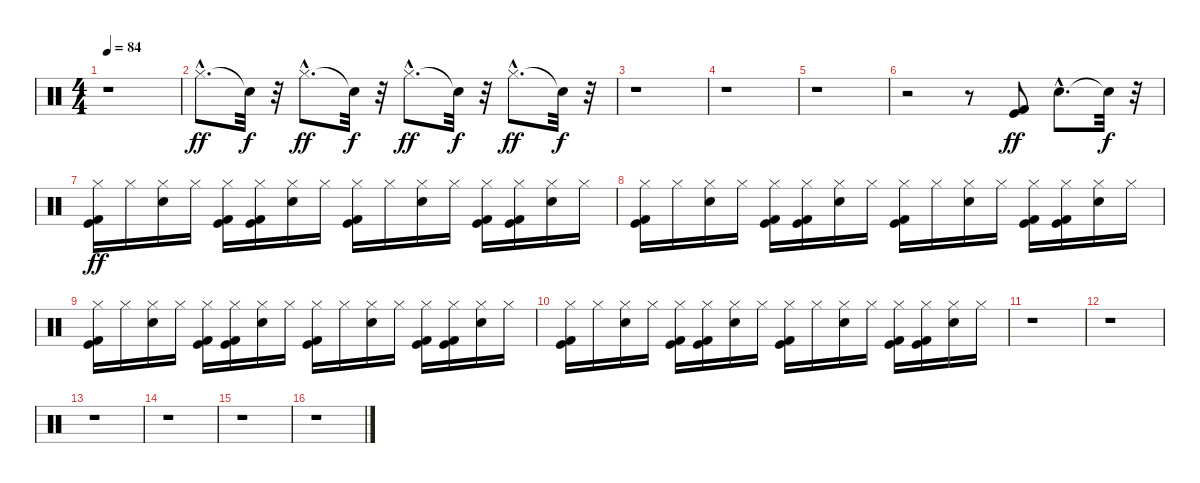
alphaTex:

\track "" {instrument percussion}
\staff {score}
\articulation defaults
\ts (4 4)
\tempo 84
\clef neutral
\ks c
r.1{dy ff} |
"Hi-Hat (closed)"{hac}.8{d} "Snare (hit)"{t}.32{dy f} r.32 "Hi-Hat (closed)"{hac}.8{d dy ff} "Snare (hit)"{t}.32{dy f} r.32 "Hi-Hat (closed)"{hac}.8{d dy ff} "Snare (hit)"{t}.32{dy f} r.32 "Hi-Hat (closed)"{hac}.8{d dy ff} "Snare (hit)"{t}.32{dy f} r.32 |
r.1 |
r.1 |
r.1 |
r.2 r.8 ("Kick (hit)" "Kick (hit) 2").8{dy ff} "Snare (hit) 2"{hac}.8{d} "Snare (hit)"{t}.32{dy f} r.32 |
("Kick (hit)" "Kick (hit) 2" "Hi-Hat (closed)").16{dy ff} "Hi-Hat (closed)".16 ("Snare (hit) 2" "Hi-Hat (closed)").16 "Hi-Hat (closed)".16 ("Kick (hit)" "Kick (hit) 2" "Hi-Hat (closed)").16 ("Kick (hit)" "Kick (hit) 2" "Hi-Hat (closed)").16 ("Snare (hit) 2" "Hi-Hat (closed)").16 "Hi-Hat (closed)".16 ("Kick (hit)" "Kick (hit) 2" "Hi-Hat (closed)").16 "Hi-Hat (closed)".16 ("Snare (hit) 2" "Hi-Hat (closed)").16 "Hi-Hat (closed)".16 ("Kick (hit)" "Kick (hit) 2" "Hi-Hat (closed)").16 ("Kick (hit)" "Kick (hit) 2" "Hi-Hat (closed)").16 ("Snare (hit) 2" "Hi-Hat (closed)").16 "Hi-Hat (closed)".16 |
("Kick (hit)" "Kick (hit) 2" "Hi-Hat (closed)").16 "Hi-Hat (closed)".16 ("Snare (hit) 2" "Hi-Hat (closed)").16 "Hi-Hat (closed)".16 ("Kick (hit)" "Kick (hit) 2" "Hi-Hat (closed)").16 ("Kick (hit)" "Kick (hit) 2" "Hi-Hat (closed)").16 ("Snare (hit) 2" "Hi-Hat (closed)").16 "Hi-Hat (closed)".16 ("Kick (hit)" "Kick (hit) 2" "Hi-Hat (closed)").16 "Hi-Hat (closed)".16 ("Snare (hit) 2" "Hi-Hat (closed)").16 "Hi-Hat (closed)".16 ("Kick (hit)" "Kick (hit) 2" "Hi-Hat (closed)").16 ("Kick (hit)" "Kick (hit) 2" "Hi-Hat (closed)").16 ("Snare (hit) 2" "Hi-Hat (closed)").16 "Hi-Hat (closed)".16 |
("Kick (hit)" "Kick (hit) 2" "Hi-Hat (closed)").16 "Hi-Hat (closed)".16 ("Snare (hit) 2" "Hi-Hat (closed)").16 "Hi-Hat (closed)".16 ("Kick (hit)" "Kick (hit) 2" "Hi-Hat (closed)").16 ("Kick (hit)" "Kick (hit) 2" "Hi-Hat (closed)").16 ("Snare (hit) 2" "Hi-Hat (closed)").16 "Hi-Hat (closed)".16 ("Kick (hit)" "Kick (hit) 2" "Hi-Hat (closed)").16 "Hi-Hat (closed)".16 ("Snare (hit) 2" "Hi-Hat (closed)").16 "Hi-Hat (closed)".16 ("Kick (hit)" "Kick (hit) 2" "Hi-Hat (closed)").16 ("Kick (hit)" "Kick (hit) 2" "Hi-Hat (closed)").16 ("Snare (hit) 2" "Hi-Hat (closed)").16 "Hi-Hat (closed)".16 |
("Kick (hit)" "Kick (hit) 2" "Hi-Hat (closed)").16 "Hi-Hat (closed)".16 ("Snare (hit) 2" "Hi-Hat (closed)").16 "Hi-Hat (closed)".16 ("Kick (hit)" "Kick (hit) 2" "Hi-Hat (closed)").16 ("Kick (hit)" "Kick (hit) 2" "Hi-Hat (closed)").16 ("Snare (hit) 2" "Hi-Hat (closed)").16 "Hi-Hat (closed)".16 ("Kick (hit)" "Kick (hit) 2" "Hi-Hat (closed)").16 "Hi-Hat (closed)".16 ("Snare (hit) 2" "Hi-Hat (closed)").16 "Hi-Hat (closed)".16 ("Kick (hit)" "Kick (hit) 2" "Hi-Hat (closed)").16 ("Kick (hit)" "Kick (hit) 2" "Hi-Hat (closed)").16 ("Snare (hit) 2" "Hi-Hat (closed)").16 "Hi-Hat (closed)".16 |
r.1 |
r.1 |
r.1 |
r.1 |
r.1 |
r.1
